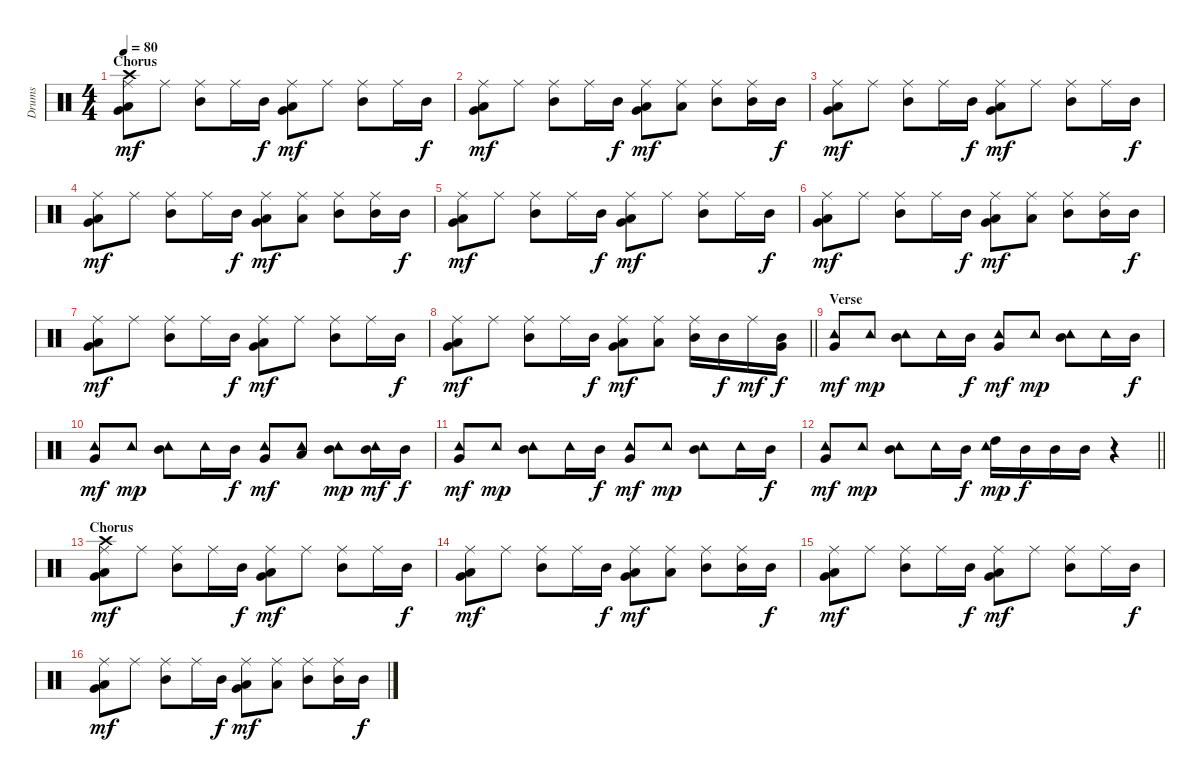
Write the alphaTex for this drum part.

\track ("Drums" "Drums") {instrument percussion}
\staff {score}
\articulation defaults
\ts (4 4)
\section ("" "Chorus")
\tempo 80
\clef neutral
\ks c
("Ride (middle)" "Crash high (hit)" "Low Tom (hit)" "Very Low Tom (hit)").8{dy mf} "Ride (middle)".8 ("Ride (middle)" "Mid Tom (hit)").8 "Ride (middle)".16 "Mid Tom (hit)".16{dy f} ("Ride (middle)" "Low Tom (hit)" "Very Low Tom (hit)").8{dy mf} "Ride (middle)".8 ("Ride (middle)" "Mid Tom (hit)").8 "Ride (middle)".16 "Mid Tom (hit)".16{dy f} |
("Ride (middle)" "Low Tom (hit)" "Very Low Tom (hit)").8{dy mf} "Ride (middle)".8 ("Ride (middle)" "Mid Tom (hit)").8 "Ride (middle)".16 "Mid Tom (hit)".16{dy f} ("Ride (middle)" "Low Tom (hit)" "Very Low Tom (hit)").8{dy mf} ("Ride (middle)" "Low Tom (hit)").8 ("Ride (middle)" "Mid Tom (hit)").8 ("Ride (middle)" "Mid Tom (hit)").16 "Mid Tom (hit)".16{dy f} |
("Ride (middle)" "Low Tom (hit)" "Very Low Tom (hit)").8{dy mf} "Ride (middle)".8 ("Ride (middle)" "Mid Tom (hit)").8 "Ride (middle)".16 "Mid Tom (hit)".16{dy f} ("Ride (middle)" "Low Tom (hit)" "Very Low Tom (hit)").8{dy mf} "Ride (middle)".8 ("Ride (middle)" "Mid Tom (hit)").8 "Ride (middle)".16 "Mid Tom (hit)".16{dy f} |
("Ride (middle)" "Low Tom (hit)" "Very Low Tom (hit)").8{dy mf} "Ride (middle)".8 ("Ride (middle)" "Mid Tom (hit)").8 "Ride (middle)".16 "Mid Tom (hit)".16{dy f} ("Ride (middle)" "Low Tom (hit)" "Very Low Tom (hit)").8{dy mf} ("Ride (middle)" "Low Tom (hit)").8 ("Ride (middle)" "Mid Tom (hit)").8 ("Ride (middle)" "Mid Tom (hit)").16 "Mid Tom (hit)".16{dy f} |
("Ride (middle)" "Low Tom (hit)" "Very Low Tom (hit)").8{dy mf} "Ride (middle)".8 ("Ride (middle)" "Mid Tom (hit)").8 "Ride (middle)".16 "Mid Tom (hit)".16{dy f} ("Ride (middle)" "Low Tom (hit)" "Very Low Tom (hit)").8{dy mf} "Ride (middle)".8 ("Ride (middle)" "Mid Tom (hit)").8 "Ride (middle)".16 "Mid Tom (hit)".16{dy f} |
("Ride (middle)" "Low Tom (hit)" "Very Low Tom (hit)").8{dy mf} "Ride (middle)".8 ("Ride (middle)" "Mid Tom (hit)").8 "Ride (middle)".16 "Mid Tom (hit)".16{dy f} ("Ride (middle)" "Low Tom (hit)" "Very Low Tom (hit)").8{dy mf} ("Ride (middle)" "Low Tom (hit)").8 ("Ride (middle)" "Mid Tom (hit)").8 ("Ride (middle)" "Mid Tom (hit)").16 "Mid Tom (hit)".16{dy f} |
("Ride (middle)" "Low Tom (hit)" "Very Low Tom (hit)").8{dy mf} "Ride (middle)".8 ("Ride (middle)" "Mid Tom (hit)").8 "Ride (middle)".16 "Mid Tom (hit)".16{dy f} ("Ride (middle)" "Low Tom (hit)" "Very Low Tom (hit)").8{dy mf} "Ride (middle)".8 ("Ride (middle)" "Mid Tom (hit)").8 "Ride (middle)".16 "Mid Tom (hit)".16{dy f} |
\barLineRight lightlight
("Ride (middle)" "Low Tom (hit)" "Very Low Tom (hit)").8{dy mf} "Ride (middle)".8 ("Ride (middle)" "Mid Tom (hit)").8 "Ride (middle)".16 "Mid Tom (hit)".16{dy f} ("Ride (middle)" "Low Tom (hit)" "Very Low Tom (hit)").8{dy mf} ("Ride (middle)" "Low Tom (hit)").8 ("Ride (middle)" "Mid Tom (hit)").16 "Mid Tom (hit)".16{dy f} "Ride (middle)".16{dy mf} ("Mid Tom (hit)" "Very Low Tom (hit)").16{dy f} |
\section ("" "Verse")
("Tambourine (hit)" "Very Low Tom (hit)").8{dy mf} "Tambourine (hit)".8{dy mp} ("Tambourine (hit)" "Mid Tom (hit)").8 "Tambourine (hit)".16 "Mid Tom (hit)".16{dy f} ("Tambourine (hit)" "Very Low Tom (hit)").8{dy mf} "Tambourine (hit)".8{dy mp} ("Tambourine (hit)" "Mid Tom (hit)").8 "Tambourine (hit)".16 "Mid Tom (hit)".16{dy f} |
("Tambourine (hit)" "Very Low Tom (hit)").8{dy mf} "Tambourine (hit)".8{dy mp} ("Tambourine (hit)" "Mid Tom (hit)").8 "Tambourine (hit)".16 "Mid Tom (hit)".16{dy f} ("Tambourine (hit)" "Very Low Tom (hit)").8{dy mf} ("Tambourine (hit)" "Low Tom (hit)").8 ("Tambourine (hit)" "Mid Tom (hit)").8{dy mp} ("Tambourine (hit)" "Mid Tom (hit)").16{dy mf} "Mid Tom (hit)".16{dy f} |
("Tambourine (hit)" "Very Low Tom (hit)").8{dy mf} "Tambourine (hit)".8{dy mp} ("Tambourine (hit)" "Mid Tom (hit)").8 "Tambourine (hit)".16 "Mid Tom (hit)".16{dy f} ("Tambourine (hit)" "Very Low Tom (hit)").8{dy mf} "Tambourine (hit)".8{dy mp} ("Tambourine (hit)" "Mid Tom (hit)").8 "Tambourine (hit)".16 "Mid Tom (hit)".16{dy f} |
\barLineRight lightlight
("Tambourine (hit)" "Very Low Tom (hit)").8{dy mf} "Tambourine (hit)".8{dy mp} ("Tambourine (hit)" "Mid Tom (hit)").8 "Tambourine (hit)".16 "Mid Tom (hit)".16{dy f} ("Tambourine (hit)" "High Tom (hit)").16{dy mp} "Mid Tom (hit)".16{dy f} "Mid Tom (hit)".16 "Mid Tom (hit)".16 r.4 |
\section ("" "Chorus")
("Ride (middle)" "Crash high (hit)" "Low Tom (hit)" "Very Low Tom (hit)").8{dy mf} "Ride (middle)".8 ("Ride (middle)" "Mid Tom (hit)").8 "Ride (middle)".16 "Mid Tom (hit)".16{dy f} ("Ride (middle)" "Low Tom (hit)" "Very Low Tom (hit)").8{dy mf} "Ride (middle)".8 ("Ride (middle)" "Mid Tom (hit)").8 "Ride (middle)".16 "Mid Tom (hit)".16{dy f} |
("Ride (middle)" "Low Tom (hit)" "Very Low Tom (hit)").8{dy mf} "Ride (middle)".8 ("Ride (middle)" "Mid Tom (hit)").8 "Ride (middle)".16 "Mid Tom (hit)".16{dy f} ("Ride (middle)" "Low Tom (hit)" "Very Low Tom (hit)").8{dy mf} ("Ride (middle)" "Low Tom (hit)").8 ("Ride (middle)" "Mid Tom (hit)").8 ("Ride (middle)" "Mid Tom (hit)").16 "Mid Tom (hit)".16{dy f} |
("Ride (middle)" "Low Tom (hit)" "Very Low Tom (hit)").8{dy mf} "Ride (middle)".8 ("Ride (middle)" "Mid Tom (hit)").8 "Ride (middle)".16 "Mid Tom (hit)".16{dy f} ("Ride (middle)" "Low Tom (hit)" "Very Low Tom (hit)").8{dy mf} "Ride (middle)".8 ("Ride (middle)" "Mid Tom (hit)").8 "Ride (middle)".16 "Mid Tom (hit)".16{dy f} |
("Ride (middle)" "Low Tom (hit)" "Very Low Tom (hit)").8{dy mf} "Ride (middle)".8 ("Ride (middle)" "Mid Tom (hit)").8 "Ride (middle)".16 "Mid Tom (hit)".16{dy f} ("Ride (middle)" "Low Tom (hit)" "Very Low Tom (hit)").8{dy mf} ("Ride (middle)" "Low Tom (hit)").8 ("Ride (middle)" "Mid Tom (hit)").8 ("Ride (middle)" "Mid Tom (hit)").16 "Mid Tom (hit)".16{dy f}
